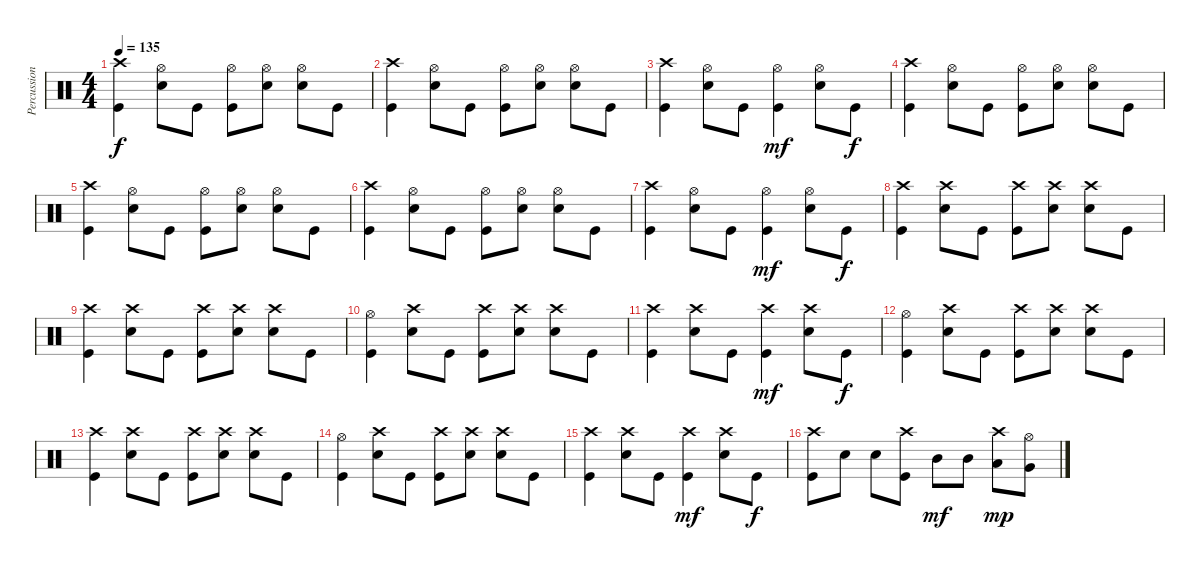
\track ("Percussion" "Percussion") {instrument percussion}
\staff {score}
\articulation defaults
\ts (4 4)
\tempo 135
\clef neutral
\ks c
("Crash high (hit)" "Kick (hit)").4{dy f} ("Hi-Hat (open)" "Electric Snare (hit)").8 "Kick (hit)".8 ("Hi-Hat (open)" "Kick (hit)").8 ("Hi-Hat (open)" "Electric Snare (hit)").8 ("Hi-Hat (open)" "Electric Snare (hit)").8 "Kick (hit)".8 |
("Crash high (hit)" "Kick (hit)").4 ("Hi-Hat (open)" "Electric Snare (hit)").8 "Kick (hit)".8 ("Hi-Hat (open)" "Kick (hit)").8 ("Hi-Hat (open)" "Electric Snare (hit)").8 ("Hi-Hat (open)" "Electric Snare (hit)").8 "Kick (hit)".8 |
("Crash high (hit)" "Kick (hit)").4 ("Hi-Hat (open)" "Electric Snare (hit)").8 "Kick (hit)".8 ("Hi-Hat (open)" "Kick (hit)").4{dy mf} ("Hi-Hat (open)" "Electric Snare (hit)").8 "Kick (hit)".8{dy f} |
("Crash high (hit)" "Kick (hit)").4 ("Hi-Hat (open)" "Electric Snare (hit)").8 "Kick (hit)".8 ("Hi-Hat (open)" "Kick (hit)").8 ("Hi-Hat (open)" "Electric Snare (hit)").8 ("Hi-Hat (open)" "Electric Snare (hit)").8 "Kick (hit)".8 |
("Crash high (hit)" "Kick (hit)").4 ("Hi-Hat (open)" "Electric Snare (hit)").8 "Kick (hit)".8 ("Hi-Hat (open)" "Kick (hit)").8 ("Hi-Hat (open)" "Electric Snare (hit)").8 ("Hi-Hat (open)" "Electric Snare (hit)").8 "Kick (hit)".8 |
("Crash high (hit)" "Kick (hit)").4 ("Hi-Hat (open)" "Electric Snare (hit)").8 "Kick (hit)".8 ("Hi-Hat (open)" "Kick (hit)").8 ("Hi-Hat (open)" "Electric Snare (hit)").8 ("Hi-Hat (open)" "Electric Snare (hit)").8 "Kick (hit)".8 |
("Crash high (hit)" "Kick (hit)").4 ("Hi-Hat (open)" "Electric Snare (hit)").8 "Kick (hit)".8 ("Hi-Hat (open)" "Kick (hit)").4{dy mf} ("Hi-Hat (open)" "Electric Snare (hit)").8 "Kick (hit)".8{dy f} |
("Crash high (hit)" "Kick (hit)").4 ("Crash high (hit)" "Electric Snare (hit)").8 "Kick (hit)".8 ("Crash high (hit)" "Kick (hit)").8 ("Crash high (hit)" "Electric Snare (hit)").8 ("Crash high (hit)" "Electric Snare (hit)").8 "Kick (hit)".8 |
("Crash high (hit)" "Kick (hit)").4 ("Crash high (hit)" "Electric Snare (hit)").8 "Kick (hit)".8 ("Crash high (hit)" "Kick (hit)").8 ("Crash high (hit)" "Electric Snare (hit)").8 ("Crash high (hit)" "Electric Snare (hit)").8 "Kick (hit)".8 |
("Hi-Hat (open)" "Kick (hit)").4 ("Crash high (hit)" "Electric Snare (hit)").8 "Kick (hit)".8 ("Crash high (hit)" "Kick (hit)").8 ("Crash high (hit)" "Electric Snare (hit)").8 ("Crash high (hit)" "Electric Snare (hit)").8 "Kick (hit)".8 |
("Crash high (hit)" "Kick (hit)").4 ("Crash high (hit)" "Electric Snare (hit)").8 "Kick (hit)".8 ("Crash high (hit)" "Kick (hit)").4{dy mf} ("Crash high (hit)" "Electric Snare (hit)").8 "Kick (hit)".8{dy f} |
("Hi-Hat (open)" "Kick (hit)").4 ("Crash high (hit)" "Electric Snare (hit)").8 "Kick (hit)".8 ("Crash high (hit)" "Kick (hit)").8 ("Crash high (hit)" "Electric Snare (hit)").8 ("Crash high (hit)" "Electric Snare (hit)").8 "Kick (hit)".8 |
("Crash high (hit)" "Kick (hit)").4 ("Crash high (hit)" "Electric Snare (hit)").8 "Kick (hit)".8 ("Crash high (hit)" "Kick (hit)").8 ("Crash high (hit)" "Electric Snare (hit)").8 ("Crash high (hit)" "Electric Snare (hit)").8 "Kick (hit)".8 |
("Hi-Hat (open)" "Kick (hit)").4 ("Crash high (hit)" "Electric Snare (hit)").8 "Kick (hit)".8 ("Crash high (hit)" "Kick (hit)").8 ("Crash high (hit)" "Electric Snare (hit)").8 ("Crash high (hit)" "Electric Snare (hit)").8 "Kick (hit)".8 |
("Crash high (hit)" "Kick (hit)").4 ("Crash high (hit)" "Electric Snare (hit)").8 "Kick (hit)".8 ("Crash high (hit)" "Kick (hit)").4{dy mf} ("Crash high (hit)" "Electric Snare (hit)").8 "Kick (hit)".8{dy f} |
("Crash high (hit)" "Kick (hit)").8 "Electric Snare (hit)".8 "Electric Snare (hit)".8 ("Crash high (hit)" "Kick (hit)").8 "Mid Tom (hit)".8{dy mf} "Mid Tom (hit)".8 ("Crash high (hit)" "Low Tom (hit)").8{dy mp} ("Hi-Hat (open)" "Very Low Tom (hit)").8
